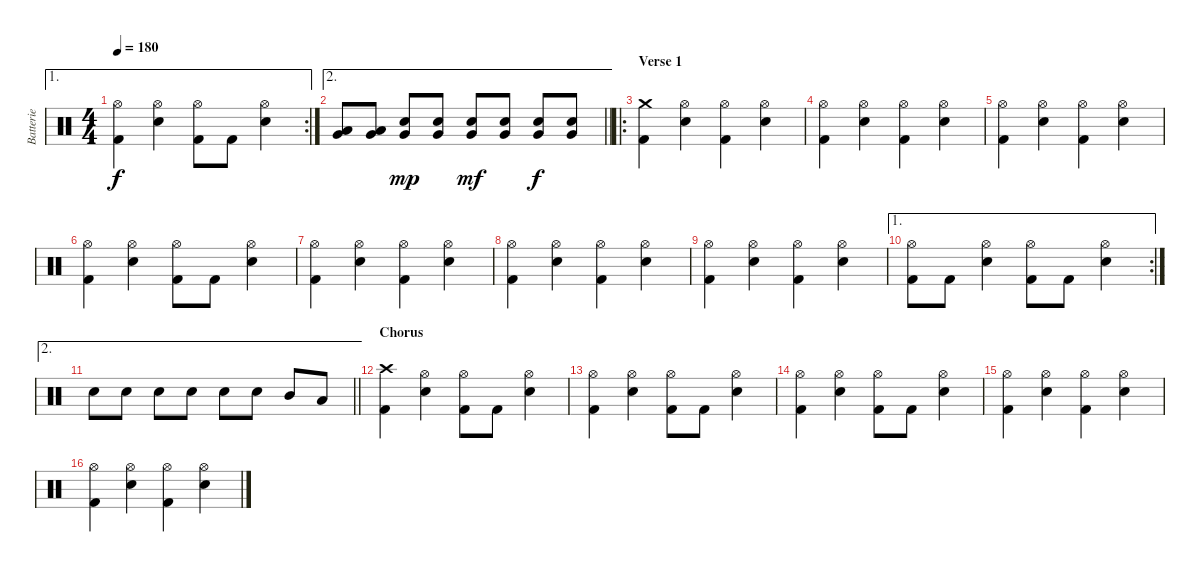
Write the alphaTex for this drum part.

\track ("Batterie" "Batterie") {instrument percussion}
\staff {score}
\articulation defaults
\ae 1
\rc 2
\ts (4 4)
\tempo 180
\clef neutral
\ks c
("Hi-Hat (open)" "Kick (hit) 2").4{dy f} ("Hi-Hat (open)" "Electric Snare (hit)").4 ("Hi-Hat (open)" "Kick (hit) 2").8 "Kick (hit) 2".8 ("Hi-Hat (open)" "Electric Snare (hit)").4 |
\ae 2
\barLineRight lightlight
("Low Tom (hit)" "Very Low Tom (hit)").8 ("Low Tom (hit)" "Very Low Tom (hit)").8 ("Electric Snare (hit)" "Very Low Tom (hit)").8{dy mp} ("Electric Snare (hit)" "Very Low Tom (hit)").8 ("Electric Snare (hit)" "Very Low Tom (hit)").8{dy mf} ("Electric Snare (hit)" "Very Low Tom (hit)").8 ("Electric Snare (hit)" "Very Low Tom (hit)").8{dy f} ("Electric Snare (hit)" "Very Low Tom (hit)").8 |
\ro
\section ("" "Verse 1")
("Crash medium (hit)" "Kick (hit) 2").4 ("Hi-Hat (open)" "Electric Snare (hit)").4 ("Hi-Hat (open)" "Kick (hit) 2").4 ("Hi-Hat (open)" "Electric Snare (hit)").4 |
("Hi-Hat (open)" "Kick (hit) 2").4 ("Hi-Hat (open)" "Electric Snare (hit)").4 ("Hi-Hat (open)" "Kick (hit) 2").4 ("Hi-Hat (open)" "Electric Snare (hit)").4 |
("Hi-Hat (open)" "Kick (hit) 2").4 ("Hi-Hat (open)" "Electric Snare (hit)").4 ("Hi-Hat (open)" "Kick (hit) 2").4 ("Hi-Hat (open)" "Electric Snare (hit)").4 |
("Hi-Hat (open)" "Kick (hit) 2").4 ("Hi-Hat (open)" "Electric Snare (hit)").4 ("Hi-Hat (open)" "Kick (hit) 2").8 "Kick (hit) 2".8 ("Hi-Hat (open)" "Electric Snare (hit)").4 |
("Hi-Hat (open)" "Kick (hit) 2").4 ("Hi-Hat (open)" "Electric Snare (hit)").4 ("Hi-Hat (open)" "Kick (hit) 2").4 ("Hi-Hat (open)" "Electric Snare (hit)").4 |
("Hi-Hat (open)" "Kick (hit) 2").4 ("Hi-Hat (open)" "Electric Snare (hit)").4 ("Hi-Hat (open)" "Kick (hit) 2").4 ("Hi-Hat (open)" "Electric Snare (hit)").4 |
("Hi-Hat (open)" "Kick (hit) 2").4 ("Hi-Hat (open)" "Electric Snare (hit)").4 ("Hi-Hat (open)" "Kick (hit) 2").4 ("Hi-Hat (open)" "Electric Snare (hit)").4 |
\ae 1
\rc 2
("Hi-Hat (open)" "Kick (hit) 2").8 "Kick (hit) 2".8 ("Hi-Hat (open)" "Electric Snare (hit)").4 ("Hi-Hat (open)" "Kick (hit) 2").8 "Kick (hit) 2".8 ("Hi-Hat (open)" "Electric Snare (hit)").4 |
\ae 2
\barLineRight lightlight "Electric Snare (hit)".8 "Electric Snare (hit)".8 "Electric Snare (hit)".8 "Electric Snare (hit)".8 "Electric Snare (hit)".8 "Electric Snare (hit)".8 "Mid Tom (hit)".8 "Low Tom (hit)".8
|
\section ("" "Chorus")
("Crash high (hit)" "Kick (hit) 2").4 ("Hi-Hat (open)" "Electric Snare (hit)").4 ("Hi-Hat (open)" "Kick (hit) 2").8 "Kick (hit) 2".8 ("Hi-Hat (open)" "Electric Snare (hit)").4 |
("Hi-Hat (open)" "Kick (hit) 2").4 ("Hi-Hat (open)" "Electric Snare (hit)").4 ("Hi-Hat (open)" "Kick (hit) 2").8 "Kick (hit) 2".8 ("Hi-Hat (open)" "Electric Snare (hit)").4 |
("Hi-Hat (open)" "Kick (hit) 2").4 ("Hi-Hat (open)" "Electric Snare (hit)").4 ("Hi-Hat (open)" "Kick (hit) 2").8 "Kick (hit) 2".8 ("Hi-Hat (open)" "Electric Snare (hit)").4 |
("Hi-Hat (open)" "Kick (hit) 2").4 ("Hi-Hat (open)" "Electric Snare (hit)").4 ("Hi-Hat (open)" "Kick (hit) 2").4 ("Hi-Hat (open)" "Electric Snare (hit)").4 |
("Hi-Hat (open)" "Kick (hit) 2").4 ("Hi-Hat (open)" "Electric Snare (hit)").4 ("Hi-Hat (open)" "Kick (hit) 2").4 ("Hi-Hat (open)" "Electric Snare (hit)").4
